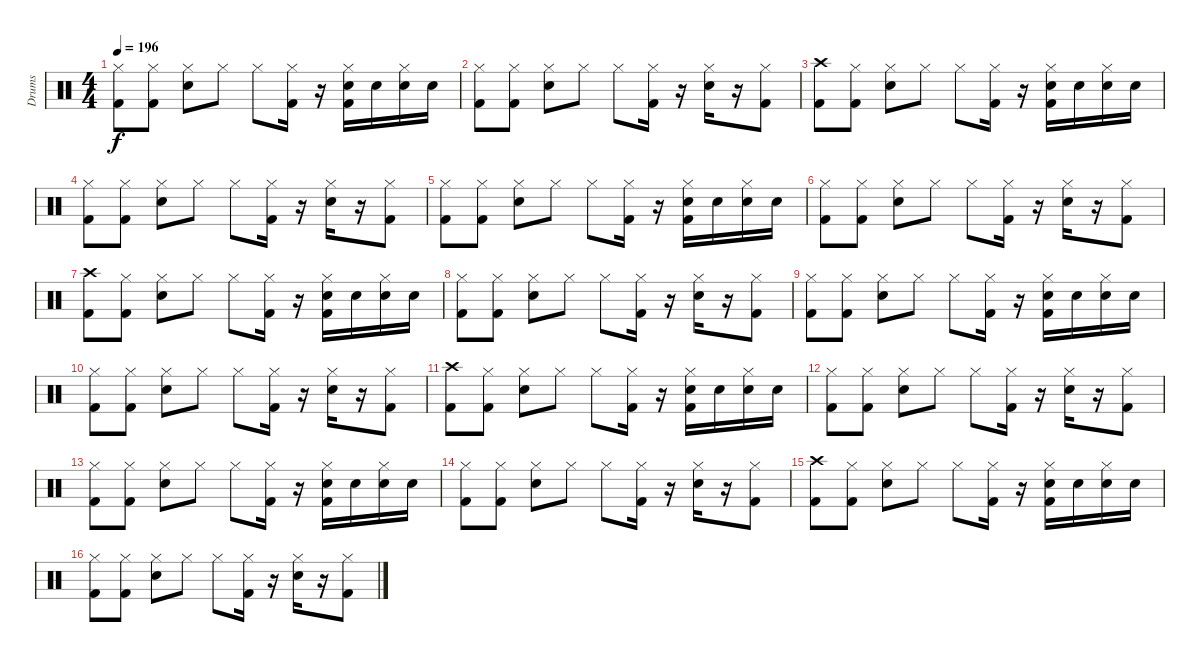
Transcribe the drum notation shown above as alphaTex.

\track ("Drums" "Drums") {instrument percussion}
\staff {score}
\articulation defaults
\ts (4 4)
\tempo 196
\clef neutral
\ks c
("Hi-Hat (closed)" "Kick (hit) 2").8{dy f} ("Hi-Hat (closed)" "Kick (hit) 2").8 ("Hi-Hat (closed)" "Electric Snare (hit)").8 "Hi-Hat (closed)".8 "Hi-Hat (closed)".8 ("Hi-Hat (closed)" "Kick (hit) 2").16 r.16 ("Hi-Hat (closed)" "Electric Snare (hit)" "Kick (hit) 2").16 "Electric Snare (hit)".16 ("Hi-Hat (closed)" "Electric Snare (hit)").16 "Electric Snare (hit)".16 |
("Hi-Hat (closed)" "Kick (hit) 2").8 ("Hi-Hat (closed)" "Kick (hit) 2").8 ("Hi-Hat (closed)" "Electric Snare (hit)").8 "Hi-Hat (closed)".8 "Hi-Hat (closed)".8 ("Hi-Hat (closed)" "Kick (hit) 2").16 r.16 ("Hi-Hat (closed)" "Electric Snare (hit)").16 r.16 ("Hi-Hat (closed)" "Kick (hit) 2").8 |
("Crash high (hit)" "Kick (hit) 2").8 ("Hi-Hat (closed)" "Kick (hit) 2").8 ("Hi-Hat (closed)" "Electric Snare (hit)").8 "Hi-Hat (closed)".8 "Hi-Hat (closed)".8 ("Hi-Hat (closed)" "Kick (hit) 2").16 r.16 ("Hi-Hat (closed)" "Electric Snare (hit)" "Kick (hit) 2").16 "Electric Snare (hit)".16 ("Hi-Hat (closed)" "Electric Snare (hit)").16 "Electric Snare (hit)".16 |
("Hi-Hat (closed)" "Kick (hit) 2").8 ("Hi-Hat (closed)" "Kick (hit) 2").8 ("Hi-Hat (closed)" "Electric Snare (hit)").8 "Hi-Hat (closed)".8 "Hi-Hat (closed)".8 ("Hi-Hat (closed)" "Kick (hit) 2").16 r.16 ("Hi-Hat (closed)" "Electric Snare (hit)").16 r.16 ("Hi-Hat (closed)" "Kick (hit) 2").8 |
("Hi-Hat (closed)" "Kick (hit) 2").8 ("Hi-Hat (closed)" "Kick (hit) 2").8 ("Hi-Hat (closed)" "Electric Snare (hit)").8 "Hi-Hat (closed)".8 "Hi-Hat (closed)".8 ("Hi-Hat (closed)" "Kick (hit) 2").16 r.16 ("Hi-Hat (closed)" "Electric Snare (hit)" "Kick (hit) 2").16 "Electric Snare (hit)".16 ("Hi-Hat (closed)" "Electric Snare (hit)").16 "Electric Snare (hit)".16 |
("Hi-Hat (closed)" "Kick (hit) 2").8 ("Hi-Hat (closed)" "Kick (hit) 2").8 ("Hi-Hat (closed)" "Electric Snare (hit)").8 "Hi-Hat (closed)".8 "Hi-Hat (closed)".8 ("Hi-Hat (closed)" "Kick (hit) 2").16 r.16 ("Hi-Hat (closed)" "Electric Snare (hit)").16 r.16 ("Hi-Hat (closed)" "Kick (hit) 2").8 |
("Crash high (hit)" "Kick (hit) 2").8 ("Hi-Hat (closed)" "Kick (hit) 2").8 ("Hi-Hat (closed)" "Electric Snare (hit)").8 "Hi-Hat (closed)".8 "Hi-Hat (closed)".8 ("Hi-Hat (closed)" "Kick (hit) 2").16 r.16 ("Hi-Hat (closed)" "Electric Snare (hit)" "Kick (hit) 2").16 "Electric Snare (hit)".16 ("Hi-Hat (closed)" "Electric Snare (hit)").16 "Electric Snare (hit)".16 |
("Hi-Hat (closed)" "Kick (hit) 2").8 ("Hi-Hat (closed)" "Kick (hit) 2").8 ("Hi-Hat (closed)" "Electric Snare (hit)").8 "Hi-Hat (closed)".8 "Hi-Hat (closed)".8 ("Hi-Hat (closed)" "Kick (hit) 2").16 r.16 ("Hi-Hat (closed)" "Electric Snare (hit)").16 r.16 ("Hi-Hat (closed)" "Kick (hit) 2").8 |
("Hi-Hat (closed)" "Kick (hit) 2").8 ("Hi-Hat (closed)" "Kick (hit) 2").8 ("Hi-Hat (closed)" "Electric Snare (hit)").8 "Hi-Hat (closed)".8 "Hi-Hat (closed)".8 ("Hi-Hat (closed)" "Kick (hit) 2").16 r.16 ("Hi-Hat (closed)" "Electric Snare (hit)" "Kick (hit) 2").16 "Electric Snare (hit)".16 ("Hi-Hat (closed)" "Electric Snare (hit)").16 "Electric Snare (hit)".16 |
("Hi-Hat (closed)" "Kick (hit) 2").8 ("Hi-Hat (closed)" "Kick (hit) 2").8 ("Hi-Hat (closed)" "Electric Snare (hit)").8 "Hi-Hat (closed)".8 "Hi-Hat (closed)".8 ("Hi-Hat (closed)" "Kick (hit) 2").16 r.16 ("Hi-Hat (closed)" "Electric Snare (hit)").16 r.16 ("Hi-Hat (closed)" "Kick (hit) 2").8 |
("Crash high (hit)" "Kick (hit) 2").8 ("Hi-Hat (closed)" "Kick (hit) 2").8 ("Hi-Hat (closed)" "Electric Snare (hit)").8 "Hi-Hat (closed)".8 "Hi-Hat (closed)".8 ("Hi-Hat (closed)" "Kick (hit) 2").16 r.16 ("Hi-Hat (closed)" "Electric Snare (hit)" "Kick (hit) 2").16 "Electric Snare (hit)".16 ("Hi-Hat (closed)" "Electric Snare (hit)").16 "Electric Snare (hit)".16 |
("Hi-Hat (closed)" "Kick (hit) 2").8 ("Hi-Hat (closed)" "Kick (hit) 2").8 ("Hi-Hat (closed)" "Electric Snare (hit)").8 "Hi-Hat (closed)".8 "Hi-Hat (closed)".8 ("Hi-Hat (closed)" "Kick (hit) 2").16 r.16 ("Hi-Hat (closed)" "Electric Snare (hit)").16 r.16 ("Hi-Hat (closed)" "Kick (hit) 2").8 |
("Hi-Hat (closed)" "Kick (hit) 2").8 ("Hi-Hat (closed)" "Kick (hit) 2").8 ("Hi-Hat (closed)" "Electric Snare (hit)").8 "Hi-Hat (closed)".8 "Hi-Hat (closed)".8 ("Hi-Hat (closed)" "Kick (hit) 2").16 r.16 ("Hi-Hat (closed)" "Electric Snare (hit)" "Kick (hit) 2").16 "Electric Snare (hit)".16 ("Hi-Hat (closed)" "Electric Snare (hit)").16 "Electric Snare (hit)".16 |
("Hi-Hat (closed)" "Kick (hit) 2").8 ("Hi-Hat (closed)" "Kick (hit) 2").8 ("Hi-Hat (closed)" "Electric Snare (hit)").8 "Hi-Hat (closed)".8 "Hi-Hat (closed)".8 ("Hi-Hat (closed)" "Kick (hit) 2").16 r.16 ("Hi-Hat (closed)" "Electric Snare (hit)").16 r.16 ("Hi-Hat (closed)" "Kick (hit) 2").8 |
("Crash high (hit)" "Kick (hit) 2").8 ("Hi-Hat (closed)" "Kick (hit) 2").8 ("Hi-Hat (closed)" "Electric Snare (hit)").8 "Hi-Hat (closed)".8 "Hi-Hat (closed)".8 ("Hi-Hat (closed)" "Kick (hit) 2").16 r.16 ("Hi-Hat (closed)" "Electric Snare (hit)" "Kick (hit) 2").16 "Electric Snare (hit)".16 ("Hi-Hat (closed)" "Electric Snare (hit)").16 "Electric Snare (hit)".16 |
("Hi-Hat (closed)" "Kick (hit) 2").8 ("Hi-Hat (closed)" "Kick (hit) 2").8 ("Hi-Hat (closed)" "Electric Snare (hit)").8 "Hi-Hat (closed)".8 "Hi-Hat (closed)".8 ("Hi-Hat (closed)" "Kick (hit) 2").16 r.16 ("Hi-Hat (closed)" "Electric Snare (hit)").16 r.16 ("Hi-Hat (closed)" "Kick (hit) 2").8
